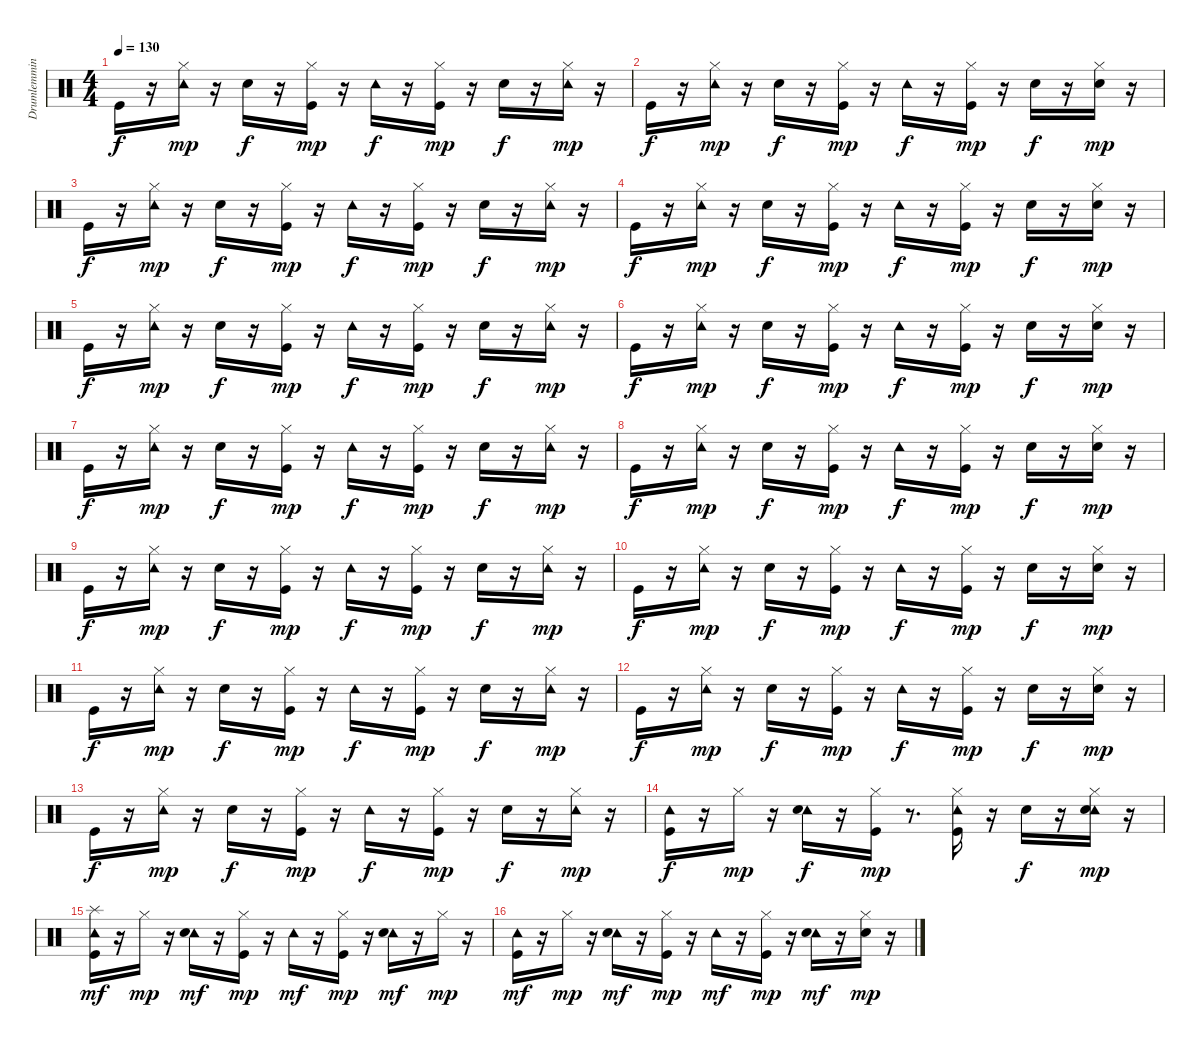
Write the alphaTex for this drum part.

\track ("Drumlemming" "Drumlemmin") {instrument percussion}
\staff {score}
\articulation defaults
\ts (4 4)
\tempo 130
\clef neutral
\ks c "Kick (hit)".16{dy f}
r.16 ("Tambourine (hit)" "Hi-Hat (closed)").16{dy mp} r.16 "Snare (hit) 2".16{dy f} r.16 ("Kick (hit)" "Hi-Hat (closed)").16{dy mp} r.16 "Tambourine (hit)".16{dy f} r.16 ("Kick (hit)" "Hi-Hat (closed)").16{dy mp} r.16 "Snare (hit) 2".16{dy f} r.16 ("Tambourine (hit)" "Hi-Hat (closed)").16{dy mp} r.16 |
"Kick (hit)".16{dy f} r.16 ("Tambourine (hit)" "Hi-Hat (closed)").16{dy mp} r.16 "Snare (hit) 2".16{dy f} r.16 ("Kick (hit)" "Hi-Hat (closed)").16{dy mp} r.16 "Tambourine (hit)".16{dy f} r.16 ("Kick (hit)" "Hi-Hat (closed)").16{dy mp} r.16 "Snare (hit) 2".16{dy f} r.16 ("Snare (hit) 2" "Hi-Hat (closed)").16{dy mp} r.16 |
"Kick (hit)".16{dy f} r.16 ("Tambourine (hit)" "Hi-Hat (closed)").16{dy mp} r.16 "Snare (hit) 2".16{dy f} r.16 ("Kick (hit)" "Hi-Hat (closed)").16{dy mp} r.16 "Tambourine (hit)".16{dy f} r.16 ("Kick (hit)" "Hi-Hat (closed)").16{dy mp} r.16 "Snare (hit) 2".16{dy f} r.16 ("Tambourine (hit)" "Hi-Hat (closed)").16{dy mp} r.16 |
"Kick (hit)".16{dy f} r.16 ("Tambourine (hit)" "Hi-Hat (closed)").16{dy mp} r.16 "Snare (hit) 2".16{dy f} r.16 ("Kick (hit)" "Hi-Hat (closed)").16{dy mp} r.16 "Tambourine (hit)".16{dy f} r.16 ("Kick (hit)" "Hi-Hat (closed)").16{dy mp} r.16 "Snare (hit) 2".16{dy f} r.16 ("Snare (hit) 2" "Hi-Hat (closed)").16{dy mp} r.16 |
"Kick (hit)".16{dy f} r.16 ("Tambourine (hit)" "Hi-Hat (closed)").16{dy mp} r.16 "Snare (hit) 2".16{dy f} r.16 ("Kick (hit)" "Hi-Hat (closed)").16{dy mp} r.16 "Tambourine (hit)".16{dy f} r.16 ("Kick (hit)" "Hi-Hat (closed)").16{dy mp} r.16 "Snare (hit) 2".16{dy f} r.16 ("Tambourine (hit)" "Hi-Hat (closed)").16{dy mp} r.16 |
"Kick (hit)".16{dy f} r.16 ("Tambourine (hit)" "Hi-Hat (closed)").16{dy mp} r.16 "Snare (hit) 2".16{dy f} r.16 ("Kick (hit)" "Hi-Hat (closed)").16{dy mp} r.16 "Tambourine (hit)".16{dy f} r.16 ("Kick (hit)" "Hi-Hat (closed)").16{dy mp} r.16 "Snare (hit) 2".16{dy f} r.16 ("Snare (hit) 2" "Hi-Hat (closed)").16{dy mp} r.16 |
"Kick (hit)".16{dy f} r.16 ("Tambourine (hit)" "Hi-Hat (closed)").16{dy mp} r.16 "Snare (hit) 2".16{dy f} r.16 ("Kick (hit)" "Hi-Hat (closed)").16{dy mp} r.16 "Tambourine (hit)".16{dy f} r.16 ("Kick (hit)" "Hi-Hat (closed)").16{dy mp} r.16 "Snare (hit) 2".16{dy f} r.16 ("Tambourine (hit)" "Hi-Hat (closed)").16{dy mp} r.16 |
"Kick (hit)".16{dy f} r.16 ("Tambourine (hit)" "Hi-Hat (closed)").16{dy mp} r.16 "Snare (hit) 2".16{dy f} r.16 ("Kick (hit)" "Hi-Hat (closed)").16{dy mp} r.16 "Tambourine (hit)".16{dy f} r.16 ("Kick (hit)" "Hi-Hat (closed)").16{dy mp} r.16 "Snare (hit) 2".16{dy f} r.16 ("Snare (hit) 2" "Hi-Hat (closed)").16{dy mp} r.16 |
"Kick (hit)".16{dy f} r.16 ("Tambourine (hit)" "Hi-Hat (closed)").16{dy mp} r.16 "Snare (hit) 2".16{dy f} r.16 ("Kick (hit)" "Hi-Hat (closed)").16{dy mp} r.16 "Tambourine (hit)".16{dy f} r.16 ("Kick (hit)" "Hi-Hat (closed)").16{dy mp} r.16 "Snare (hit) 2".16{dy f} r.16 ("Tambourine (hit)" "Hi-Hat (closed)").16{dy mp} r.16 |
"Kick (hit)".16{dy f} r.16 ("Tambourine (hit)" "Hi-Hat (closed)").16{dy mp} r.16 "Snare (hit) 2".16{dy f} r.16 ("Kick (hit)" "Hi-Hat (closed)").16{dy mp} r.16 "Tambourine (hit)".16{dy f} r.16 ("Kick (hit)" "Hi-Hat (closed)").16{dy mp} r.16 "Snare (hit) 2".16{dy f} r.16 ("Snare (hit) 2" "Hi-Hat (closed)").16{dy mp} r.16 |
"Kick (hit)".16{dy f} r.16 ("Tambourine (hit)" "Hi-Hat (closed)").16{dy mp} r.16 "Snare (hit) 2".16{dy f} r.16 ("Kick (hit)" "Hi-Hat (closed)").16{dy mp} r.16 "Tambourine (hit)".16{dy f} r.16 ("Kick (hit)" "Hi-Hat (closed)").16{dy mp} r.16 "Snare (hit) 2".16{dy f} r.16 ("Tambourine (hit)" "Hi-Hat (closed)").16{dy mp} r.16 |
"Kick (hit)".16{dy f} r.16 ("Tambourine (hit)" "Hi-Hat (closed)").16{dy mp} r.16 "Snare (hit) 2".16{dy f} r.16 ("Kick (hit)" "Hi-Hat (closed)").16{dy mp} r.16 "Tambourine (hit)".16{dy f} r.16 ("Kick (hit)" "Hi-Hat (closed)").16{dy mp} r.16 "Snare (hit) 2".16{dy f} r.16 ("Snare (hit) 2" "Hi-Hat (closed)").16{dy mp} r.16 |
"Kick (hit)".16{dy f} r.16 ("Tambourine (hit)" "Hi-Hat (closed)").16{dy mp} r.16 "Snare (hit) 2".16{dy f} r.16 ("Kick (hit)" "Hi-Hat (closed)").16{dy mp} r.16 "Tambourine (hit)".16{dy f} r.16 ("Kick (hit)" "Hi-Hat (closed)").16{dy mp} r.16 "Snare (hit) 2".16{dy f} r.16 ("Tambourine (hit)" "Hi-Hat (closed)").16{dy mp} r.16 |
("Tambourine (hit)" "Kick (hit)").16{dy f} r.16 "Hi-Hat (closed)".16{dy mp} r.16 ("Tambourine (hit)" "Snare (hit) 2").16{dy f} r.16 ("Kick (hit)" "Hi-Hat (closed)").16{dy mp} r.8{d} ("Tambourine (hit)" "Kick (hit)" "Hi-Hat (closed)").16 r.16 "Snare (hit) 2".16{dy f} r.16 ("Tambourine (hit)" "Snare (hit) 2" "Hi-Hat (closed)").16{dy mp} r.16 |
("Splash (hit)" "Tambourine (hit)" "Kick (hit)").16{dy mf} r.16 "Hi-Hat (closed)".16{dy mp} r.16 ("Tambourine (hit)" "Snare (hit) 2").16{dy mf} r.16 ("Kick (hit)" "Hi-Hat (closed)").16{dy mp} r.16 "Tambourine (hit)".16{dy mf} r.16 ("Kick (hit)" "Hi-Hat (closed)").16{dy mp} r.16 ("Tambourine (hit)" "Snare (hit) 2").16{dy mf} r.16 "Hi-Hat (closed)".16{dy mp} r.16 |
("Tambourine (hit)" "Kick (hit)").16{dy mf} r.16 "Hi-Hat (closed)".16{dy mp} r.16 ("Tambourine (hit)" "Snare (hit) 2").16{dy mf} r.16 ("Kick (hit)" "Hi-Hat (closed)").16{dy mp} r.16 "Tambourine (hit)".16{dy mf} r.16 ("Kick (hit)" "Hi-Hat (closed)").16{dy mp} r.16 ("Tambourine (hit)" "Snare (hit) 2").16{dy mf} r.16 ("Snare (hit) 2" "Hi-Hat (closed)").16{dy mp} r.16
